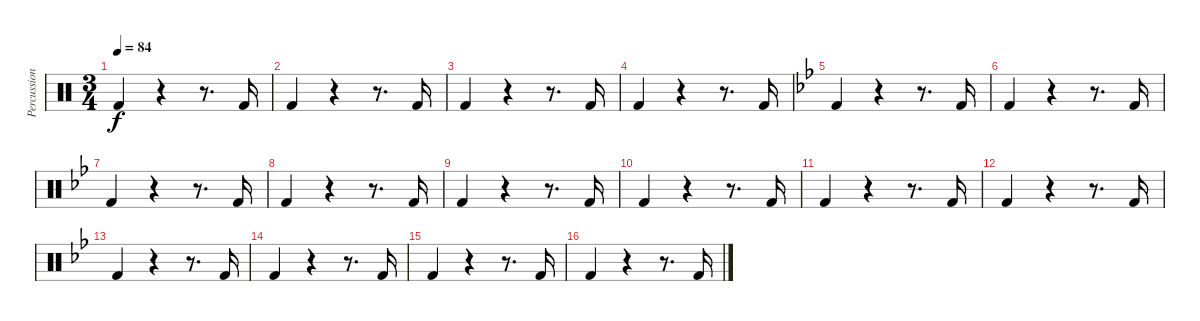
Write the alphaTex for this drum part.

\track ("Percussion" "Percussion") {instrument percussion}
\staff {score}
\articulation defaults
\ts (3 4)
\tempo 84
\clef neutral
\ks c "Kick (hit) 2".4{dy f}
r.4 r.8{d} "Kick (hit) 2".16 |
"Kick (hit) 2".4 r.4 r.8{d} "Kick (hit) 2".16 |
"Kick (hit) 2".4 r.4 r.8{d} "Kick (hit) 2".16 |
"Kick (hit) 2".4 r.4 r.8{d} "Kick (hit) 2".16 |
\ks gminor "Kick (hit) 2".4
r.4 r.8{d} "Kick (hit) 2".16 |
"Kick (hit) 2".4 r.4 r.8{d} "Kick (hit) 2".16 |
"Kick (hit) 2".4 r.4 r.8{d} "Kick (hit) 2".16 |
"Kick (hit) 2".4 r.4 r.8{d} "Kick (hit) 2".16 |
"Kick (hit) 2".4 r.4 r.8{d} "Kick (hit) 2".16 |
"Kick (hit) 2".4 r.4 r.8{d} "Kick (hit) 2".16 |
"Kick (hit) 2".4 r.4 r.8{d} "Kick (hit) 2".16 |
"Kick (hit) 2".4 r.4 r.8{d} "Kick (hit) 2".16 |
"Kick (hit) 2".4 r.4 r.8{d} "Kick (hit) 2".16 |
"Kick (hit) 2".4 r.4 r.8{d} "Kick (hit) 2".16 |
"Kick (hit) 2".4 r.4 r.8{d} "Kick (hit) 2".16 |
"Kick (hit) 2".4 r.4 r.8{d} "Kick (hit) 2".16
